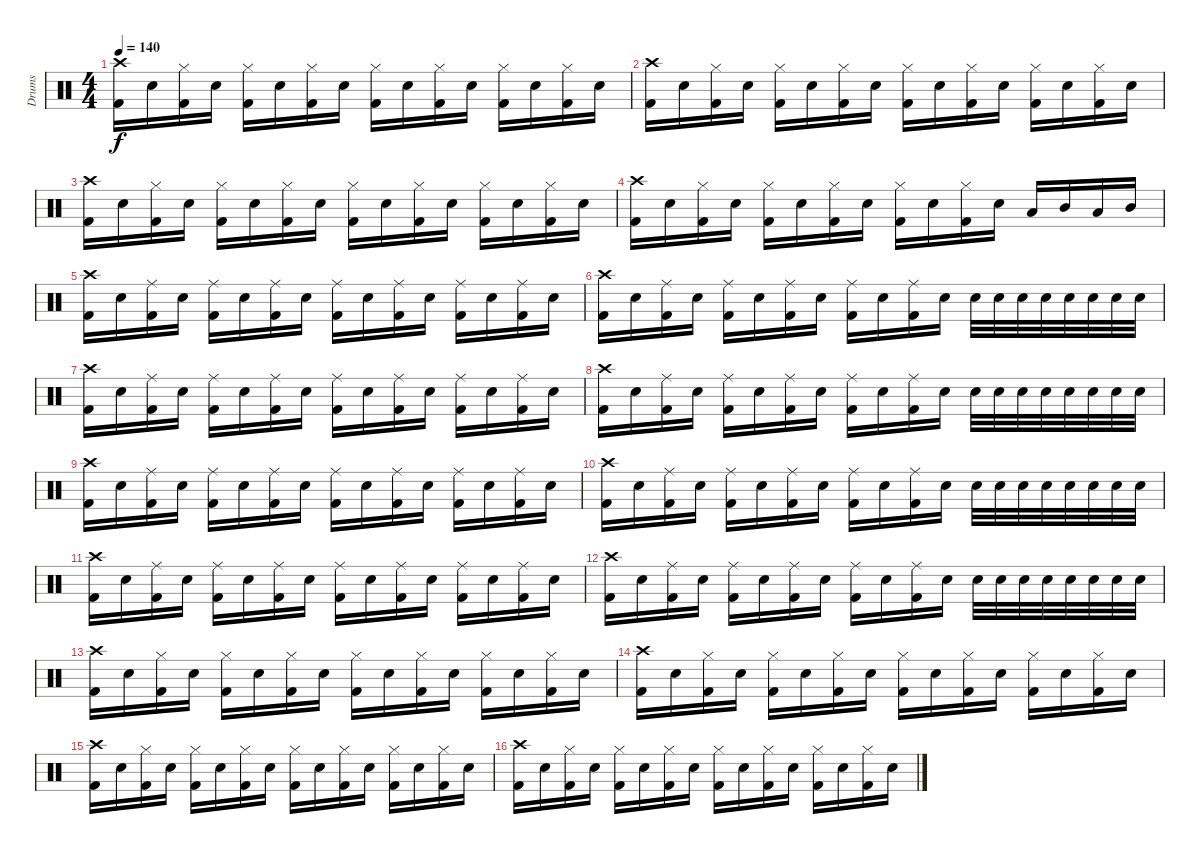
\track ("Drums" "Drums") {instrument percussion}
\staff {score}
\articulation defaults
\ts (4 4)
\tempo 140
\clef neutral
\ks c
("Crash high (hit)" "Kick (hit) 2").16{dy f} "Snare (hit) 2".16 ("Hi-Hat (closed)" "Kick (hit) 2").16 "Snare (hit) 2".16 ("Hi-Hat (closed)" "Kick (hit) 2").16 "Snare (hit) 2".16 ("Hi-Hat (closed)" "Kick (hit) 2").16 "Snare (hit) 2".16 ("Hi-Hat (closed)" "Kick (hit) 2").16 "Snare (hit) 2".16 ("Hi-Hat (closed)" "Kick (hit) 2").16 "Snare (hit) 2".16 ("Hi-Hat (closed)" "Kick (hit) 2").16 "Snare (hit) 2".16 ("Hi-Hat (closed)" "Kick (hit) 2").16 "Snare (hit) 2".16 |
("Crash high (hit)" "Kick (hit) 2").16 "Snare (hit) 2".16 ("Hi-Hat (closed)" "Kick (hit) 2").16 "Snare (hit) 2".16 ("Hi-Hat (closed)" "Kick (hit) 2").16 "Snare (hit) 2".16 ("Hi-Hat (closed)" "Kick (hit) 2").16 "Snare (hit) 2".16 ("Hi-Hat (closed)" "Kick (hit) 2").16 "Snare (hit) 2".16 ("Hi-Hat (closed)" "Kick (hit) 2").16 "Snare (hit) 2".16 ("Hi-Hat (closed)" "Kick (hit) 2").16 "Snare (hit) 2".16 ("Hi-Hat (closed)" "Kick (hit) 2").16 "Snare (hit) 2".16 |
("Crash high (hit)" "Kick (hit) 2").16 "Snare (hit) 2".16 ("Hi-Hat (closed)" "Kick (hit) 2").16 "Snare (hit) 2".16 ("Hi-Hat (closed)" "Kick (hit) 2").16 "Snare (hit) 2".16 ("Hi-Hat (closed)" "Kick (hit) 2").16 "Snare (hit) 2".16 ("Hi-Hat (closed)" "Kick (hit) 2").16 "Snare (hit) 2".16 ("Hi-Hat (closed)" "Kick (hit) 2").16 "Snare (hit) 2".16 ("Hi-Hat (closed)" "Kick (hit) 2").16 "Snare (hit) 2".16 ("Hi-Hat (closed)" "Kick (hit) 2").16 "Snare (hit) 2".16 |
("Crash high (hit)" "Kick (hit) 2").16 "Snare (hit) 2".16 ("Hi-Hat (closed)" "Kick (hit) 2").16 "Snare (hit) 2".16 ("Hi-Hat (closed)" "Kick (hit) 2").16 "Snare (hit) 2".16 ("Hi-Hat (closed)" "Kick (hit) 2").16 "Snare (hit) 2".16 ("Hi-Hat (closed)" "Kick (hit) 2").16 "Snare (hit) 2".16 ("Hi-Hat (closed)" "Kick (hit) 2").16 "Snare (hit) 2".16 "Low Tom (hit)".16 "Mid Tom (hit)".16 "Low Tom (hit)".16 "Mid Tom (hit)".16 |
("Crash high (hit)" "Kick (hit) 2").16 "Snare (hit) 2".16 ("Ride (middle)" "Kick (hit) 2").16 "Snare (hit) 2".16 ("Ride (middle)" "Kick (hit) 2").16 "Snare (hit) 2".16 ("Ride (middle)" "Kick (hit) 2").16 "Snare (hit) 2".16 ("Ride (middle)" "Kick (hit) 2").16 "Snare (hit) 2".16 ("Ride (middle)" "Kick (hit) 2").16 "Snare (hit) 2".16 ("Ride (middle)" "Kick (hit) 2").16 "Snare (hit) 2".16 ("Ride (middle)" "Kick (hit) 2").16 "Snare (hit) 2".16 |
("Crash high (hit)" "Kick (hit) 2").16 "Snare (hit) 2".16 ("Ride (middle)" "Kick (hit) 2").16 "Snare (hit) 2".16 ("Ride (middle)" "Kick (hit) 2").16 "Snare (hit) 2".16 ("Ride (middle)" "Kick (hit) 2").16 "Snare (hit) 2".16 ("Ride (middle)" "Kick (hit) 2").16 "Snare (hit) 2".16 ("Ride (middle)" "Kick (hit) 2").16 "Snare (hit) 2".16 "Snare (hit) 2".32 "Snare (hit) 2".32 "Snare (hit) 2".32 "Snare (hit) 2".32 "Snare (hit) 2".32 "Snare (hit) 2".32 "Snare (hit) 2".32 "Snare (hit) 2".32 |
("Crash high (hit)" "Kick (hit) 2").16 "Snare (hit) 2".16 ("Ride (middle)" "Kick (hit) 2").16 "Snare (hit) 2".16 ("Ride (middle)" "Kick (hit) 2").16 "Snare (hit) 2".16 ("Ride (middle)" "Kick (hit) 2").16 "Snare (hit) 2".16 ("Ride (middle)" "Kick (hit) 2").16 "Snare (hit) 2".16 ("Ride (middle)" "Kick (hit) 2").16 "Snare (hit) 2".16 ("Ride (middle)" "Kick (hit) 2").16 "Snare (hit) 2".16 ("Ride (middle)" "Kick (hit) 2").16 "Snare (hit) 2".16 |
("Crash high (hit)" "Kick (hit) 2").16 "Snare (hit) 2".16 ("Ride (middle)" "Kick (hit) 2").16 "Snare (hit) 2".16 ("Ride (middle)" "Kick (hit) 2").16 "Snare (hit) 2".16 ("Ride (middle)" "Kick (hit) 2").16 "Snare (hit) 2".16 ("Ride (middle)" "Kick (hit) 2").16 "Snare (hit) 2".16 ("Ride (middle)" "Kick (hit) 2").16 "Snare (hit) 2".16 "Snare (hit) 2".32 "Snare (hit) 2".32 "Snare (hit) 2".32 "Snare (hit) 2".32 "Snare (hit) 2".32 "Snare (hit) 2".32 "Snare (hit) 2".32 "Snare (hit) 2".32 |
("Crash high (hit)" "Kick (hit) 2").16 "Snare (hit) 2".16 ("Ride (middle)" "Kick (hit) 2").16 "Snare (hit) 2".16 ("Ride (middle)" "Kick (hit) 2").16 "Snare (hit) 2".16 ("Ride (middle)" "Kick (hit) 2").16 "Snare (hit) 2".16 ("Ride (middle)" "Kick (hit) 2").16 "Snare (hit) 2".16 ("Ride (middle)" "Kick (hit) 2").16 "Snare (hit) 2".16 ("Ride (middle)" "Kick (hit) 2").16 "Snare (hit) 2".16 ("Ride (middle)" "Kick (hit) 2").16 "Snare (hit) 2".16 |
("Crash high (hit)" "Kick (hit) 2").16 "Snare (hit) 2".16 ("Ride (middle)" "Kick (hit) 2").16 "Snare (hit) 2".16 ("Ride (middle)" "Kick (hit) 2").16 "Snare (hit) 2".16 ("Ride (middle)" "Kick (hit) 2").16 "Snare (hit) 2".16 ("Ride (middle)" "Kick (hit) 2").16 "Snare (hit) 2".16 ("Ride (middle)" "Kick (hit) 2").16 "Snare (hit) 2".16 "Snare (hit) 2".32 "Snare (hit) 2".32 "Snare (hit) 2".32 "Snare (hit) 2".32 "Snare (hit) 2".32 "Snare (hit) 2".32 "Snare (hit) 2".32 "Snare (hit) 2".32 |
("Crash high (hit)" "Kick (hit) 2").16 "Snare (hit) 2".16 ("Ride (middle)" "Kick (hit) 2").16 "Snare (hit) 2".16 ("Ride (middle)" "Kick (hit) 2").16 "Snare (hit) 2".16 ("Ride (middle)" "Kick (hit) 2").16 "Snare (hit) 2".16 ("Ride (middle)" "Kick (hit) 2").16 "Snare (hit) 2".16 ("Ride (middle)" "Kick (hit) 2").16 "Snare (hit) 2".16 ("Ride (middle)" "Kick (hit) 2").16 "Snare (hit) 2".16 ("Ride (middle)" "Kick (hit) 2").16 "Snare (hit) 2".16 |
("Crash high (hit)" "Kick (hit) 2").16 "Snare (hit) 2".16 ("Ride (middle)" "Kick (hit) 2").16 "Snare (hit) 2".16 ("Ride (middle)" "Kick (hit) 2").16 "Snare (hit) 2".16 ("Ride (middle)" "Kick (hit) 2").16 "Snare (hit) 2".16 ("Ride (middle)" "Kick (hit) 2").16 "Snare (hit) 2".16 ("Ride (middle)" "Kick (hit) 2").16 "Snare (hit) 2".16 "Snare (hit) 2".32 "Snare (hit) 2".32 "Snare (hit) 2".32 "Snare (hit) 2".32 "Snare (hit) 2".32 "Snare (hit) 2".32 "Snare (hit) 2".32 "Snare (hit) 2".32 |
("Crash high (hit)" "Kick (hit) 2").16 "Snare (hit) 2".16 ("Hi-Hat (closed)" "Kick (hit) 2").16 "Snare (hit) 2".16 ("Hi-Hat (closed)" "Kick (hit) 2").16 "Snare (hit) 2".16 ("Hi-Hat (closed)" "Kick (hit) 2").16 "Snare (hit) 2".16 ("Hi-Hat (closed)" "Kick (hit) 2").16 "Snare (hit) 2".16 ("Hi-Hat (closed)" "Kick (hit) 2").16 "Snare (hit) 2".16 ("Hi-Hat (closed)" "Kick (hit) 2").16 "Snare (hit) 2".16 ("Hi-Hat (closed)" "Kick (hit) 2").16 "Snare (hit) 2".16 |
("Crash high (hit)" "Kick (hit) 2").16 "Snare (hit) 2".16 ("Hi-Hat (closed)" "Kick (hit) 2").16 "Snare (hit) 2".16 ("Hi-Hat (closed)" "Kick (hit) 2").16 "Snare (hit) 2".16 ("Hi-Hat (closed)" "Kick (hit) 2").16 "Snare (hit) 2".16 ("Hi-Hat (closed)" "Kick (hit) 2").16 "Snare (hit) 2".16 ("Hi-Hat (closed)" "Kick (hit) 2").16 "Snare (hit) 2".16 ("Hi-Hat (closed)" "Kick (hit) 2").16 "Snare (hit) 2".16 ("Hi-Hat (closed)" "Kick (hit) 2").16 "Snare (hit) 2".16 |
("Crash high (hit)" "Kick (hit) 2").16 "Snare (hit) 2".16 ("Hi-Hat (closed)" "Kick (hit) 2").16 "Snare (hit) 2".16 ("Hi-Hat (closed)" "Kick (hit) 2").16 "Snare (hit) 2".16 ("Hi-Hat (closed)" "Kick (hit) 2").16 "Snare (hit) 2".16 ("Hi-Hat (closed)" "Kick (hit) 2").16 "Snare (hit) 2".16 ("Hi-Hat (closed)" "Kick (hit) 2").16 "Snare (hit) 2".16 ("Hi-Hat (closed)" "Kick (hit) 2").16 "Snare (hit) 2".16 ("Hi-Hat (closed)" "Kick (hit) 2").16 "Snare (hit) 2".16 |
("Crash high (hit)" "Kick (hit) 2").16 "Snare (hit) 2".16 ("Hi-Hat (closed)" "Kick (hit) 2").16 "Snare (hit) 2".16 ("Hi-Hat (closed)" "Kick (hit) 2").16 "Snare (hit) 2".16 ("Hi-Hat (closed)" "Kick (hit) 2").16 "Snare (hit) 2".16 ("Hi-Hat (closed)" "Kick (hit) 2").16 "Snare (hit) 2".16 ("Hi-Hat (closed)" "Kick (hit) 2").16 "Snare (hit) 2".16 ("Hi-Hat (closed)" "Kick (hit) 2").16 "Snare (hit) 2".16 ("Hi-Hat (closed)" "Kick (hit) 2").16 "Snare (hit) 2".16
